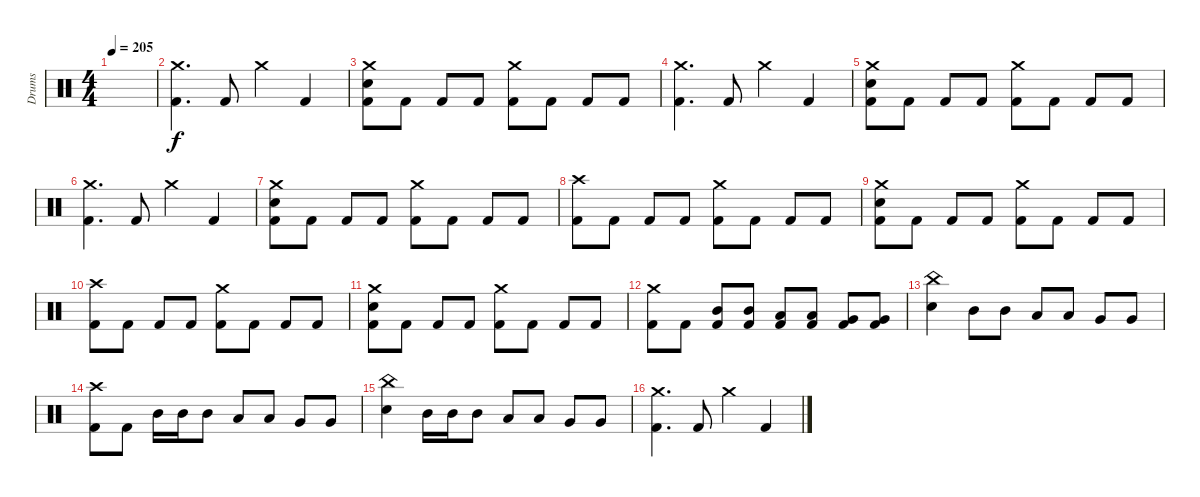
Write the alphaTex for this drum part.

\track ("Drums" "Drums") {instrument percussion}
\staff {score}
\articulation defaults
\ts (4 4)
\tempo 205
\clef neutral
\ks c
|
("Crash medium (hit)" "Kick (hit) 2").4{d} "Kick (hit) 2".8 "Crash medium (hit)".4 "Kick (hit) 2".4 |
("Crash medium (hit)" "Snare (hit) 2" "Kick (hit) 2").8 "Kick (hit) 2".8 "Kick (hit) 2".8 "Kick (hit) 2".8 ("Crash medium (hit)" "Kick (hit) 2").8 "Kick (hit) 2".8 "Kick (hit) 2".8 "Kick (hit) 2".8 |
("Crash medium (hit)" "Kick (hit) 2").4{d} "Kick (hit) 2".8 "Crash medium (hit)".4 "Kick (hit) 2".4 |
("Crash medium (hit)" "Snare (hit) 2" "Kick (hit) 2").8 "Kick (hit) 2".8 "Kick (hit) 2".8 "Kick (hit) 2".8 ("Crash medium (hit)" "Kick (hit) 2").8 "Kick (hit) 2".8 "Kick (hit) 2".8 "Kick (hit) 2".8 |
("Crash medium (hit)" "Kick (hit) 2").4{d} "Kick (hit) 2".8 "Crash medium (hit)".4 "Kick (hit) 2".4 |
("Crash medium (hit)" "Snare (hit) 2" "Kick (hit) 2").8 "Kick (hit) 2".8 "Kick (hit) 2".8 "Kick (hit) 2".8 ("Crash medium (hit)" "Kick (hit) 2").8 "Kick (hit) 2".8 "Kick (hit) 2".8 "Kick (hit) 2".8 |
("Crash high (hit)" "Kick (hit) 2").8 "Kick (hit) 2".8 "Kick (hit) 2".8 "Kick (hit) 2".8 ("Crash medium (hit)" "Kick (hit) 2").8 "Kick (hit) 2".8 "Kick (hit) 2".8 "Kick (hit) 2".8 |
("Crash medium (hit)" "Snare (hit) 2" "Kick (hit) 2").8 "Kick (hit) 2".8 "Kick (hit) 2".8 "Kick (hit) 2".8 ("Crash medium (hit)" "Kick (hit) 2").8 "Kick (hit) 2".8 "Kick (hit) 2".8 "Kick (hit) 2".8 |
("Crash high (hit)" "Kick (hit) 2").8 "Kick (hit) 2".8 "Kick (hit) 2".8 "Kick (hit) 2".8 ("Crash medium (hit)" "Kick (hit) 2").8 "Kick (hit) 2".8 "Kick (hit) 2".8 "Kick (hit) 2".8 |
("Crash medium (hit)" "Snare (hit) 2" "Kick (hit) 2").8 "Kick (hit) 2".8 "Kick (hit) 2".8 "Kick (hit) 2".8 ("Crash medium (hit)" "Kick (hit) 2").8 "Kick (hit) 2".8 "Kick (hit) 2".8 "Kick (hit) 2".8 |
("Crash medium (hit)" "Kick (hit) 2").8 "Kick (hit) 2".8 ("Mid Tom (hit)" "Kick (hit) 2").8 ("Mid Tom (hit)" "Kick (hit) 2").8 ("Low Tom (hit)" "Kick (hit) 2").8 ("Low Tom (hit)" "Kick (hit) 2").8 ("Very Low Tom (hit)" "Kick (hit) 2").8 ("Very Low Tom (hit)" "Kick (hit) 2").8 |
("China (hit)" "Snare (hit) 2").4 "Mid Tom (hit)".8 "Mid Tom (hit)".8 "Low Tom (hit)".8 "Low Tom (hit)".8 "Very Low Tom (hit)".8 "Very Low Tom (hit)".8 |
("Crash high (hit)" "Kick (hit) 2").8 "Kick (hit) 2".8 "Mid Tom (hit)".16 "Mid Tom (hit)".16 "Mid Tom (hit)".8 "Low Tom (hit)".8 "Low Tom (hit)".8 "Very Low Tom (hit)".8 "Very Low Tom (hit)".8 |
("China (hit)" "Snare (hit) 2").4 "Mid Tom (hit)".16 "Mid Tom (hit)".16 "Mid Tom (hit)".8 "Low Tom (hit)".8 "Low Tom (hit)".8 "Very Low Tom (hit)".8 "Very Low Tom (hit)".8 |
("Crash medium (hit)" "Kick (hit) 2").4{d} "Kick (hit) 2".8 "Crash medium (hit)".4 "Kick (hit) 2".4
